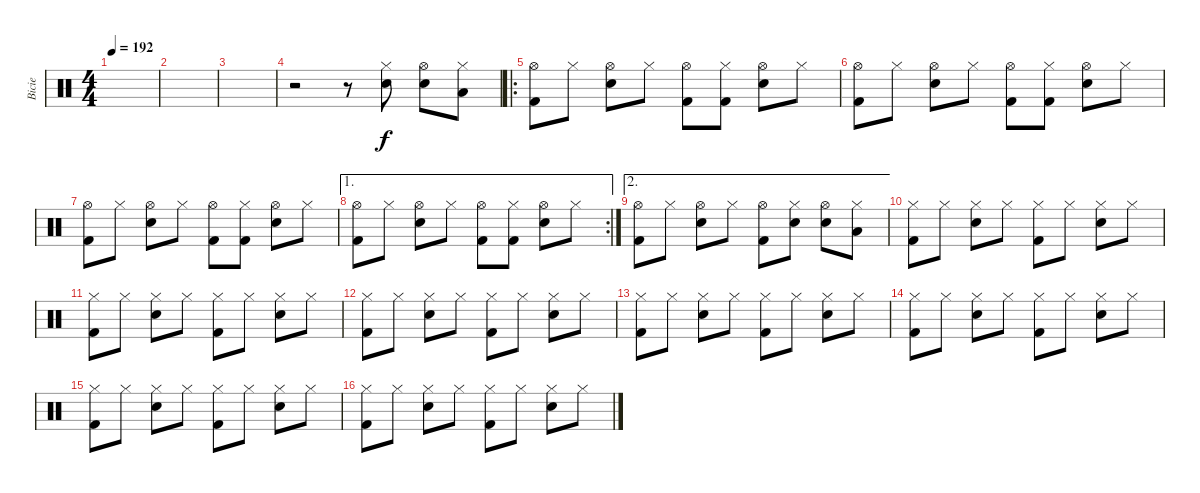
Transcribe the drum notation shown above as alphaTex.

\track ("Bicie" "Bicie") {instrument percussion}
\staff {score}
\articulation defaults
\ts (4 4)
\tempo 192
\clef neutral
\ks c
|
|
|
r.2 r.8 ("Hi-Hat (closed)" "Electric Snare (hit)").8 ("Hi-Hat (open)" "Electric Snare (hit)").8 ("Hi-Hat (closed)" "Low Tom (hit)").8 |
\ro
("Hi-Hat (open)" "Kick (hit) 2").8 "Hi-Hat (closed)".8 ("Hi-Hat (open)" "Electric Snare (hit)").8 "Hi-Hat (closed)".8 ("Hi-Hat (open)" "Kick (hit) 2").8 ("Hi-Hat (closed)" "Kick (hit) 2").8 ("Hi-Hat (open)" "Electric Snare (hit)").8 "Hi-Hat (closed)".8 |
("Hi-Hat (open)" "Kick (hit) 2").8 "Hi-Hat (closed)".8 ("Hi-Hat (open)" "Electric Snare (hit)").8 "Hi-Hat (closed)".8 ("Hi-Hat (open)" "Kick (hit) 2").8 ("Hi-Hat (closed)" "Kick (hit) 2").8 ("Hi-Hat (open)" "Electric Snare (hit)").8 "Hi-Hat (closed)".8 |
("Hi-Hat (open)" "Kick (hit) 2").8 "Hi-Hat (closed)".8 ("Hi-Hat (open)" "Electric Snare (hit)").8 "Hi-Hat (closed)".8 ("Hi-Hat (open)" "Kick (hit) 2").8 ("Hi-Hat (closed)" "Kick (hit) 2").8 ("Hi-Hat (open)" "Electric Snare (hit)").8 "Hi-Hat (closed)".8 |
\ae 1
\rc 2
("Hi-Hat (open)" "Kick (hit) 2").8 "Hi-Hat (closed)".8 ("Hi-Hat (open)" "Electric Snare (hit)").8 "Hi-Hat (closed)".8 ("Hi-Hat (open)" "Kick (hit) 2").8 ("Hi-Hat (closed)" "Kick (hit) 2").8 ("Hi-Hat (open)" "Electric Snare (hit)").8 "Hi-Hat (closed)".8 |
\ae 2
("Hi-Hat (open)" "Kick (hit) 2").8 "Hi-Hat (closed)".8 ("Hi-Hat (open)" "Electric Snare (hit)").8 "Hi-Hat (closed)".8 ("Hi-Hat (open)" "Kick (hit) 2").8 ("Hi-Hat (closed)" "Electric Snare (hit)").8 ("Hi-Hat (open)" "Electric Snare (hit)").8 ("Hi-Hat (closed)" "Low Tom (hit)").8 |
("Hi-Hat (closed)" "Kick (hit) 2").8 "Hi-Hat (closed)".8 ("Hi-Hat (closed)" "Electric Snare (hit)").8 "Hi-Hat (closed)".8 ("Hi-Hat (closed)" "Kick (hit) 2").8 "Hi-Hat (closed)".8 ("Hi-Hat (closed)" "Electric Snare (hit)").8 "Hi-Hat (closed)".8 |
("Hi-Hat (closed)" "Kick (hit) 2").8 "Hi-Hat (closed)".8 ("Hi-Hat (closed)" "Electric Snare (hit)").8 "Hi-Hat (closed)".8 ("Hi-Hat (closed)" "Kick (hit) 2").8 "Hi-Hat (closed)".8 ("Hi-Hat (closed)" "Electric Snare (hit)").8 "Hi-Hat (closed)".8 |
("Hi-Hat (closed)" "Kick (hit) 2").8 "Hi-Hat (closed)".8 ("Hi-Hat (closed)" "Electric Snare (hit)").8 "Hi-Hat (closed)".8 ("Hi-Hat (closed)" "Kick (hit) 2").8 "Hi-Hat (closed)".8 ("Hi-Hat (closed)" "Electric Snare (hit)").8 "Hi-Hat (closed)".8 |
("Hi-Hat (closed)" "Kick (hit) 2").8 "Hi-Hat (closed)".8 ("Hi-Hat (closed)" "Electric Snare (hit)").8 "Hi-Hat (closed)".8 ("Hi-Hat (closed)" "Kick (hit) 2").8 "Hi-Hat (closed)".8 ("Hi-Hat (closed)" "Electric Snare (hit)").8 "Hi-Hat (closed)".8 |
("Hi-Hat (closed)" "Kick (hit) 2").8 "Hi-Hat (closed)".8 ("Hi-Hat (closed)" "Electric Snare (hit)").8 "Hi-Hat (closed)".8 ("Hi-Hat (closed)" "Kick (hit) 2").8 "Hi-Hat (closed)".8 ("Hi-Hat (closed)" "Electric Snare (hit)").8 "Hi-Hat (closed)".8 |
("Hi-Hat (closed)" "Kick (hit) 2").8 "Hi-Hat (closed)".8 ("Hi-Hat (closed)" "Electric Snare (hit)").8 "Hi-Hat (closed)".8 ("Hi-Hat (closed)" "Kick (hit) 2").8 "Hi-Hat (closed)".8 ("Hi-Hat (closed)" "Electric Snare (hit)").8 "Hi-Hat (closed)".8 |
("Hi-Hat (closed)" "Kick (hit) 2").8 "Hi-Hat (closed)".8 ("Hi-Hat (closed)" "Electric Snare (hit)").8 "Hi-Hat (closed)".8 ("Hi-Hat (closed)" "Kick (hit) 2").8 "Hi-Hat (closed)".8 ("Hi-Hat (closed)" "Electric Snare (hit)").8 "Hi-Hat (closed)".8
